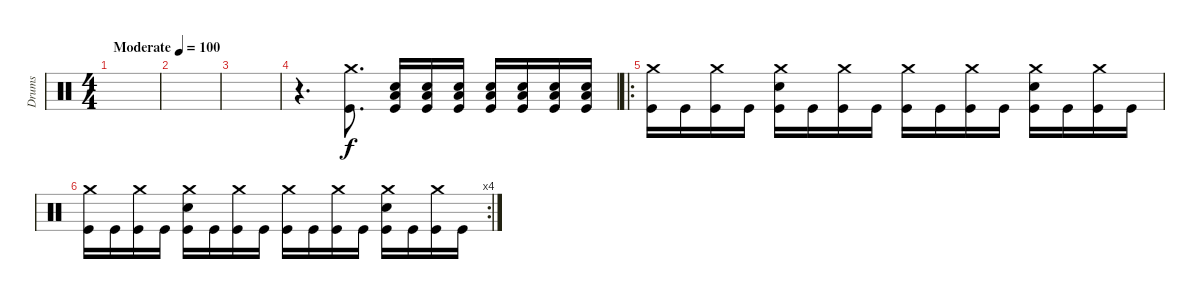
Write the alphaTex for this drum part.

\track ("Drums" "Drums") {instrument percussion}
\staff {score}
\articulation defaults
\ts (4 4)
\tempo (100 "Moderate")
\clef neutral
\ks c
|
|
|
r.4{d} ("Crash medium (hit)" "Kick (hit)").8{d} ("Snare (hit) 2" "Low Floor Tom (hit)" "Kick (hit)").16 ("Snare (hit) 2" "Low Floor Tom (hit)" "Kick (hit)").16 ("Snare (hit) 2" "Low Floor Tom (hit)" "Kick (hit)").16 ("Snare (hit) 2" "Low Floor Tom (hit)" "Kick (hit)").16 ("Snare (hit) 2" "Low Floor Tom (hit)" "Kick (hit)").16 ("Snare (hit) 2" "Low Floor Tom (hit)" "Kick (hit)").16 ("Snare (hit) 2" "Low Floor Tom (hit)" "Kick (hit)").16 |
\ro
("Crash medium (hit)" "Kick (hit)").16 "Kick (hit)".16 ("Crash medium (hit)" "Kick (hit)").16 "Kick (hit)".16 ("Crash medium (hit)" "Snare (hit) 2" "Kick (hit)").16 "Kick (hit)".16 ("Crash medium (hit)" "Kick (hit)").16 "Kick (hit)".16 ("Crash medium (hit)" "Kick (hit)").16 "Kick (hit)".16 ("Crash medium (hit)" "Kick (hit)").16 "Kick (hit)".16 ("Crash medium (hit)" "Snare (hit) 2" "Kick (hit)").16 "Kick (hit)".16 ("Crash medium (hit)" "Kick (hit)").16 "Kick (hit)".16 |
\rc 4
("Crash medium (hit)" "Kick (hit)").16 "Kick (hit)".16 ("Crash medium (hit)" "Kick (hit)").16 "Kick (hit)".16 ("Crash medium (hit)" "Snare (hit) 2" "Kick (hit)").16 "Kick (hit)".16 ("Crash medium (hit)" "Kick (hit)").16 "Kick (hit)".16 ("Crash medium (hit)" "Kick (hit)").16 "Kick (hit)".16 ("Crash medium (hit)" "Kick (hit)").16 "Kick (hit)".16 ("Crash medium (hit)" "Snare (hit) 2" "Kick (hit)").16 "Kick (hit)".16 ("Crash medium (hit)" "Kick (hit)").16 "Kick (hit)".16
